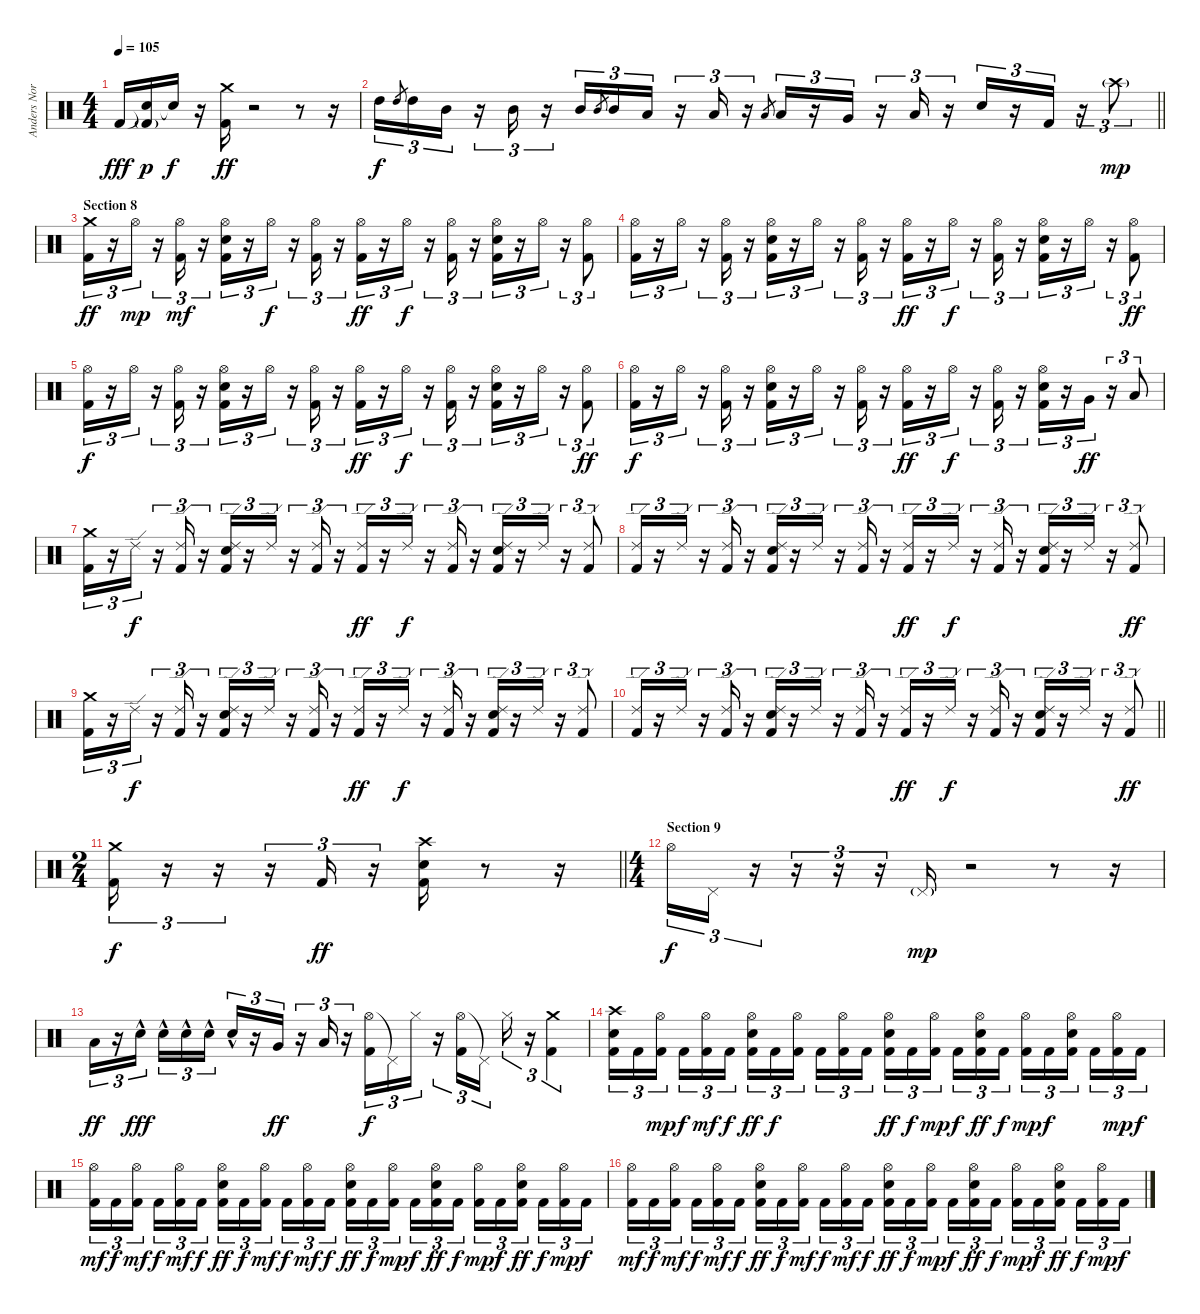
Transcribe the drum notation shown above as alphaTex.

\track ("Anders Nordin" "Anders Nor") {instrument percussion}
\staff {score}
\articulation defaults
\ts (4 4)
\tempo 105
\clef neutral
\ks c "Kick (hit) 2".16{dy fff}
("Snare (hit)"{t} "Kick (hit) 2"{g}).16{dy p} "Snare (hit)"{t}.16{dy f volume 13} r.16 ("Crash medium (hit)" "Kick (hit) 2").16{dy ff} r.2 r.8 r.16 |
\barLineRight lightlight "High Tom (hit)".16{tu (3 2) dy f} "High Tom (hit)".8{gr} "High Tom (hit)".16{tu (3 2)} "Mid Tom (hit)".16{tu (3 2)}
r.16{tu (3 2)} "Mid Tom (hit)".16{tu (3 2)} r.16{tu (3 2)} "Mid Tom (hit)".16{tu (3 2)} "Mid Tom (hit)".8{gr} "Mid Tom (hit)".16{tu (3 2)} "Low Tom (hit)".16{tu (3 2)} r.16{tu (3 2)} "Low Tom (hit)".16{tu (3 2)} r.16{tu (3 2)} "Low Tom (hit)".8{gr} "Low Tom (hit)".16{tu (3 2)} r.16{tu (3 2)} "Very Low Tom (hit)".16{tu (3 2)} r.16{tu (3 2)} "Low Floor Tom (hit)".16{tu (3 2)} r.16{tu (3 2)} "Snare (hit) 2".16{tu (3 2)} r.16{tu (3 2)} "Kick (hit) 2".16{tu (3 2)} r.16{tu (3 2)} "Crash high (hit)"{g}.8{tu (3 2) dy mp} |
\section ("" "Section 8")
("Crash medium (hit)" "Kick (hit) 2").16{tu (3 2) dy ff} r.16{tu (3 2)} "Hi-Hat (open)".16{tu (3 2) dy mp} r.16{tu (3 2)} ("Hi-Hat (open)" "Kick (hit) 2").16{tu (3 2) dy mf} r.16{tu (3 2)} ("Hi-Hat (open)" "Snare (hit) 2" "Kick (hit) 2").16{tu (3 2)} r.16{tu (3 2)} "Hi-Hat (open)".16{tu (3 2) dy f} r.16{tu (3 2)} ("Hi-Hat (open)" "Kick (hit) 2").16{tu (3 2)} r.16{tu (3 2)} ("Hi-Hat (open)" "Kick (hit) 2").16{tu (3 2) dy ff} r.16{tu (3 2)} "Hi-Hat (open)".16{tu (3 2) dy f} r.16{tu (3 2)} ("Hi-Hat (open)" "Kick (hit) 2").16{tu (3 2)} r.16{tu (3 2)} ("Hi-Hat (open)" "Snare (hit) 2" "Kick (hit) 2").16{tu (3 2)} r.16{tu (3 2)} "Hi-Hat (open)".16{tu (3 2)} r.16{tu (3 2)} ("Hi-Hat (open)" "Kick (hit) 2").8{tu (3 2)} |
("Hi-Hat (open)" "Kick (hit) 2").16{tu (3 2)} r.16{tu (3 2)} "Hi-Hat (open)".16{tu (3 2)} r.16{tu (3 2)} ("Hi-Hat (open)" "Kick (hit) 2").16{tu (3 2)} r.16{tu (3 2)} ("Hi-Hat (open)" "Snare (hit) 2" "Kick (hit) 2").16{tu (3 2)} r.16{tu (3 2)} "Hi-Hat (open)".16{tu (3 2)} r.16{tu (3 2)} ("Hi-Hat (open)" "Kick (hit) 2").16{tu (3 2)} r.16{tu (3 2)} ("Hi-Hat (open)" "Kick (hit) 2").16{tu (3 2) dy ff} r.16{tu (3 2)} "Hi-Hat (open)".16{tu (3 2) dy f} r.16{tu (3 2)} ("Hi-Hat (open)" "Kick (hit) 2").16{tu (3 2)} r.16{tu (3 2)} ("Hi-Hat (open)" "Snare (hit) 2" "Kick (hit) 2").16{tu (3 2)} r.16{tu (3 2)} "Hi-Hat (open)".16{tu (3 2)} r.16{tu (3 2)} ("Hi-Hat (open)" "Kick (hit) 2").8{tu (3 2) dy ff} |
("Hi-Hat (open)" "Kick (hit) 2").16{tu (3 2) dy f} r.16{tu (3 2)} "Hi-Hat (open)".16{tu (3 2)} r.16{tu (3 2)} ("Hi-Hat (open)" "Kick (hit) 2").16{tu (3 2)} r.16{tu (3 2)} ("Hi-Hat (open)" "Snare (hit) 2" "Kick (hit) 2").16{tu (3 2)} r.16{tu (3 2)} "Hi-Hat (open)".16{tu (3 2)} r.16{tu (3 2)} ("Hi-Hat (open)" "Kick (hit) 2").16{tu (3 2)} r.16{tu (3 2)} ("Hi-Hat (open)" "Kick (hit) 2").16{tu (3 2) dy ff} r.16{tu (3 2)} "Hi-Hat (open)".16{tu (3 2) dy f} r.16{tu (3 2)} ("Hi-Hat (open)" "Kick (hit) 2").16{tu (3 2)} r.16{tu (3 2)} ("Hi-Hat (open)" "Snare (hit) 2" "Kick (hit) 2").16{tu (3 2)} r.16{tu (3 2)} "Hi-Hat (open)".16{tu (3 2)} r.16{tu (3 2)} ("Hi-Hat (open)" "Kick (hit) 2").8{tu (3 2) dy ff} |
("Hi-Hat (open)" "Kick (hit) 2").16{tu (3 2) dy f} r.16{tu (3 2)} "Hi-Hat (open)".16{tu (3 2)} r.16{tu (3 2)} ("Hi-Hat (open)" "Kick (hit) 2").16{tu (3 2)} r.16{tu (3 2)} ("Hi-Hat (open)" "Snare (hit) 2" "Kick (hit) 2").16{tu (3 2)} r.16{tu (3 2)} "Hi-Hat (open)".16{tu (3 2)} r.16{tu (3 2)} ("Hi-Hat (open)" "Kick (hit) 2").16{tu (3 2)} r.16{tu (3 2)} ("Hi-Hat (open)" "Kick (hit) 2").16{tu (3 2) dy ff} r.16{tu (3 2)} "Hi-Hat (open)".16{tu (3 2) dy f} r.16{tu (3 2)} ("Hi-Hat (open)" "Kick (hit) 2").16{tu (3 2)} r.16{tu (3 2)} ("Hi-Hat (open)" "Snare (hit) 2" "Kick (hit) 2").16{tu (3 2)} r.16{tu (3 2)} "Very Low Tom (hit)".16{tu (3 2) dy ff} r.16{tu (3 2)} "Low Floor Tom (hit)".8{tu (3 2)} |
("Crash medium (hit)" "Kick (hit) 2").16{tu (3 2)} r.16{tu (3 2)} "Ride (edge) 2".16{tu (3 2) dy f} r.16{tu (3 2)} ("Ride (edge) 2" "Kick (hit) 2").16{tu (3 2)} r.16{tu (3 2)} ("Ride (edge) 2" "Snare (hit) 2" "Kick (hit) 2").16{tu (3 2)} r.16{tu (3 2)} "Ride (edge) 2".16{tu (3 2)} r.16{tu (3 2)} ("Ride (edge) 2" "Kick (hit) 2").16{tu (3 2)} r.16{tu (3 2)} ("Ride (edge) 2" "Kick (hit) 2").16{tu (3 2) dy ff} r.16{tu (3 2)} "Ride (edge) 2".16{tu (3 2) dy f} r.16{tu (3 2)} ("Ride (edge) 2" "Kick (hit) 2").16{tu (3 2)} r.16{tu (3 2)} ("Ride (edge) 2" "Snare (hit) 2" "Kick (hit) 2").16{tu (3 2)} r.16{tu (3 2)} "Ride (edge) 2".16{tu (3 2)} r.16{tu (3 2)} ("Ride (edge) 2" "Kick (hit) 2").8{tu (3 2)} |
("Ride (edge) 2" "Kick (hit) 2").16{tu (3 2)} r.16{tu (3 2)} "Ride (edge) 2".16{tu (3 2)} r.16{tu (3 2)} ("Ride (edge) 2" "Kick (hit) 2").16{tu (3 2)} r.16{tu (3 2)} ("Ride (edge) 2" "Snare (hit) 2" "Kick (hit) 2").16{tu (3 2)} r.16{tu (3 2)} "Ride (edge) 2".16{tu (3 2)} r.16{tu (3 2)} ("Ride (edge) 2" "Kick (hit) 2").16{tu (3 2)} r.16{tu (3 2)} ("Ride (edge) 2" "Kick (hit) 2").16{tu (3 2) dy ff} r.16{tu (3 2)} "Ride (edge) 2".16{tu (3 2) dy f} r.16{tu (3 2)} ("Ride (edge) 2" "Kick (hit) 2").16{tu (3 2)} r.16{tu (3 2)} ("Ride (edge) 2" "Snare (hit) 2" "Kick (hit) 2").16{tu (3 2)} r.16{tu (3 2)} "Ride (edge) 2".16{tu (3 2)} r.16{tu (3 2)} ("Ride (edge) 2" "Kick (hit) 2").8{tu (3 2) dy ff} |
("Crash medium (hit)" "Kick (hit) 2").16{tu (3 2)} r.16{tu (3 2)} "Ride (edge) 2".16{tu (3 2) dy f} r.16{tu (3 2)} ("Ride (edge) 2" "Kick (hit) 2").16{tu (3 2)} r.16{tu (3 2)} ("Ride (edge) 2" "Snare (hit) 2" "Kick (hit) 2").16{tu (3 2)} r.16{tu (3 2)} "Ride (edge) 2".16{tu (3 2)} r.16{tu (3 2)} ("Ride (edge) 2" "Kick (hit) 2").16{tu (3 2)} r.16{tu (3 2)} ("Ride (edge) 2" "Kick (hit) 2").16{tu (3 2) dy ff} r.16{tu (3 2)} "Ride (edge) 2".16{tu (3 2) dy f} r.16{tu (3 2)} ("Ride (edge) 2" "Kick (hit) 2").16{tu (3 2)} r.16{tu (3 2)} ("Ride (edge) 2" "Snare (hit) 2" "Kick (hit) 2").16{tu (3 2)} r.16{tu (3 2)} "Ride (edge) 2".16{tu (3 2)} r.16{tu (3 2)} ("Ride (edge) 2" "Kick (hit) 2").8{tu (3 2)} |
\barLineRight lightlight
("Ride (edge) 2" "Kick (hit) 2").16{tu (3 2)} r.16{tu (3 2)} "Ride (edge) 2".16{tu (3 2)} r.16{tu (3 2)} ("Ride (edge) 2" "Kick (hit) 2").16{tu (3 2)} r.16{tu (3 2)} ("Ride (edge) 2" "Snare (hit) 2" "Kick (hit) 2").16{tu (3 2)} r.16{tu (3 2)} "Ride (edge) 2".16{tu (3 2)} r.16{tu (3 2)} ("Ride (edge) 2" "Kick (hit) 2").16{tu (3 2)} r.16{tu (3 2)} ("Ride (edge) 2" "Kick (hit) 2").16{tu (3 2) dy ff} r.16{tu (3 2)} "Ride (edge) 2".16{tu (3 2) dy f} r.16{tu (3 2)} ("Ride (edge) 2" "Kick (hit) 2").16{tu (3 2)} r.16{tu (3 2)} ("Ride (edge) 2" "Snare (hit) 2" "Kick (hit) 2").16{tu (3 2)} r.16{tu (3 2)} "Ride (edge) 2".16{tu (3 2)} r.16{tu (3 2)} ("Ride (edge) 2" "Kick (hit) 2").8{tu (3 2) dy ff} |
\ts (2 4)
\barLineRight lightlight
("Crash medium (hit)" "Kick (hit) 2").16{tu (3 2) dy f} r.16{tu (3 2)} r.16{tu (3 2)} r.16{tu (3 2)} "Kick (hit) 2".16{tu (3 2) dy ff} r.16{tu (3 2)} ("Crash high (hit)" "Snare (hit) 2" "Kick (hit) 2").16 r.8 r.16 |
\ts (4 4)
\section ("" "Section 9")
"Hi-Hat (open)".16{tu (3 2) dy f} "Pedal Hi-Hat (hit)".16{tu (3 2)} r.16{tu (3 2)} r.16{tu (3 2)} r.16{tu (3 2)} r.16{tu (3 2)} "Pedal Hi-Hat (hit)"{g}.16{dy mp} r.2 r.8 r.16 |
"Low Floor Tom (hit)".16{tu (3 2) dy ff} r.16{tu (3 2)} "Snare (hit) 2"{hac}.16{tu (3 2) dy fff beam splitsecondary} "Snare (hit) 2"{hac}.16{tu (3 2)} "Snare (hit) 2"{hac}.16{tu (3 2)} "Snare (hit) 2"{hac}.16{tu (3 2)} "Snare (hit) 2"{hac}.16{tu (3 2)} r.16{tu (3 2)} "Very Low Tom (hit)".16{tu (3 2) dy ff} r.16{tu (3 2)} "Low Floor Tom (hit)".16{tu (3 2)} r.16{tu (3 2)} ("Hi-Hat (open)" "Kick (hit) 2").16{tu (3 2) dy f} "Pedal Hi-Hat (hit)"{t}.16{tu (3 2)} "Hi-Hat (closed)".16{tu (3 2)} r.16{tu (3 2)} ("Hi-Hat (open)" "Kick (hit) 2").16{tu (3 2)} "Pedal Hi-Hat (hit)"{t}.16{tu (3 2)} "Hi-Hat (closed)".16{tu (3 2)} r.16{tu (3 2)} ("Crash medium (hit)" "Kick (hit) 2").4{tu (3 2)} |
("Crash high (hit)" "Snare (hit) 2" "Kick (hit) 2").16{tu (3 2)} "Kick (hit) 2".16{tu (3 2)} ("Hi-Hat (open)" "Kick (hit) 2").16{tu (3 2) dy mp beam splitsecondary} "Kick (hit) 2".16{tu (3 2) dy f} ("Hi-Hat (open)" "Kick (hit) 2").16{tu (3 2) dy mf} "Kick (hit) 2".16{tu (3 2) dy f} ("Hi-Hat (open)" "Snare (hit) 2" "Kick (hit) 2").16{tu (3 2) dy ff} "Kick (hit) 2".16{tu (3 2) dy f} ("Hi-Hat (open)" "Kick (hit) 2").16{tu (3 2) beam splitsecondary} "Kick (hit) 2".16{tu (3 2)} ("Hi-Hat (open)" "Kick (hit) 2").16{tu (3 2)} "Kick (hit) 2".16{tu (3 2)} ("Hi-Hat (open)" "Snare (hit) 2" "Kick (hit) 2").16{tu (3 2) dy ff} "Kick (hit) 2".16{tu (3 2) dy f} ("Hi-Hat (open)" "Kick (hit) 2").16{tu (3 2) dy mp beam splitsecondary} "Kick (hit) 2".16{tu (3 2) dy f} ("Hi-Hat (open)" "Snare (hit) 2" "Kick (hit) 2").16{tu (3 2) dy ff} "Kick (hit) 2".16{tu (3 2) dy f} ("Hi-Hat (open)" "Kick (hit) 2").16{tu (3 2) dy mp} "Kick (hit) 2".16{tu (3 2) dy f} ("Hi-Hat (open)" "Snare (hit) 2" "Kick (hit) 2").16{tu (3 2) beam splitsecondary} "Kick (hit) 2".16{tu (3 2)} ("Hi-Hat (open)" "Kick (hit) 2").16{tu (3 2) dy mp} "Kick (hit) 2".16{tu (3 2) dy f} |
("Hi-Hat (open)" "Kick (hit) 2").16{tu (3 2) dy mf} "Kick (hit) 2".16{tu (3 2) dy f} ("Hi-Hat (open)" "Kick (hit) 2").16{tu (3 2) dy mf beam splitsecondary} "Kick (hit) 2".16{tu (3 2) dy f} ("Hi-Hat (open)" "Kick (hit) 2").16{tu (3 2) dy mf} "Kick (hit) 2".16{tu (3 2) dy f} ("Hi-Hat (open)" "Snare (hit) 2" "Kick (hit) 2").16{tu (3 2) dy ff} "Kick (hit) 2".16{tu (3 2) dy f} ("Hi-Hat (open)" "Kick (hit) 2").16{tu (3 2) dy mf beam splitsecondary} "Kick (hit) 2".16{tu (3 2) dy f} ("Hi-Hat (open)" "Kick (hit) 2").16{tu (3 2) dy mf} "Kick (hit) 2".16{tu (3 2) dy f} ("Hi-Hat (open)" "Snare (hit) 2" "Kick (hit) 2").16{tu (3 2) dy ff} "Kick (hit) 2".16{tu (3 2) dy f} ("Hi-Hat (open)" "Kick (hit) 2").16{tu (3 2) dy mp beam splitsecondary} "Kick (hit) 2".16{tu (3 2) dy f} ("Hi-Hat (open)" "Snare (hit) 2" "Kick (hit) 2").16{tu (3 2) dy ff} "Kick (hit) 2".16{tu (3 2) dy f} ("Hi-Hat (open)" "Kick (hit) 2").16{tu (3 2) dy mp} "Kick (hit) 2".16{tu (3 2) dy f} ("Hi-Hat (open)" "Snare (hit) 2" "Kick (hit) 2").16{tu (3 2) dy ff beam splitsecondary} "Kick (hit) 2".16{tu (3 2) dy f} ("Hi-Hat (open)" "Kick (hit) 2").16{tu (3 2) dy mp} "Kick (hit) 2".16{tu (3 2) dy f} |
("Hi-Hat (open)" "Kick (hit) 2").16{tu (3 2) dy mf} "Kick (hit) 2".16{tu (3 2) dy f} ("Hi-Hat (open)" "Kick (hit) 2").16{tu (3 2) dy mf beam splitsecondary} "Kick (hit) 2".16{tu (3 2) dy f} ("Hi-Hat (open)" "Kick (hit) 2").16{tu (3 2) dy mf} "Kick (hit) 2".16{tu (3 2) dy f} ("Hi-Hat (open)" "Snare (hit) 2" "Kick (hit) 2").16{tu (3 2) dy ff} "Kick (hit) 2".16{tu (3 2) dy f} ("Hi-Hat (open)" "Kick (hit) 2").16{tu (3 2) dy mf beam splitsecondary} "Kick (hit) 2".16{tu (3 2) dy f} ("Hi-Hat (open)" "Kick (hit) 2").16{tu (3 2) dy mf} "Kick (hit) 2".16{tu (3 2) dy f} ("Hi-Hat (open)" "Snare (hit) 2" "Kick (hit) 2").16{tu (3 2) dy ff} "Kick (hit) 2".16{tu (3 2) dy f} ("Hi-Hat (open)" "Kick (hit) 2").16{tu (3 2) dy mp beam splitsecondary} "Kick (hit) 2".16{tu (3 2) dy f} ("Hi-Hat (open)" "Snare (hit) 2" "Kick (hit) 2").16{tu (3 2) dy ff} "Kick (hit) 2".16{tu (3 2) dy f} ("Hi-Hat (open)" "Kick (hit) 2").16{tu (3 2) dy mp} "Kick (hit) 2".16{tu (3 2) dy f} ("Hi-Hat (open)" "Snare (hit) 2" "Kick (hit) 2").16{tu (3 2) dy ff beam splitsecondary} "Kick (hit) 2".16{tu (3 2) dy f} ("Hi-Hat (open)" "Kick (hit) 2").16{tu (3 2) dy mp} "Kick (hit) 2".16{tu (3 2) dy f}
